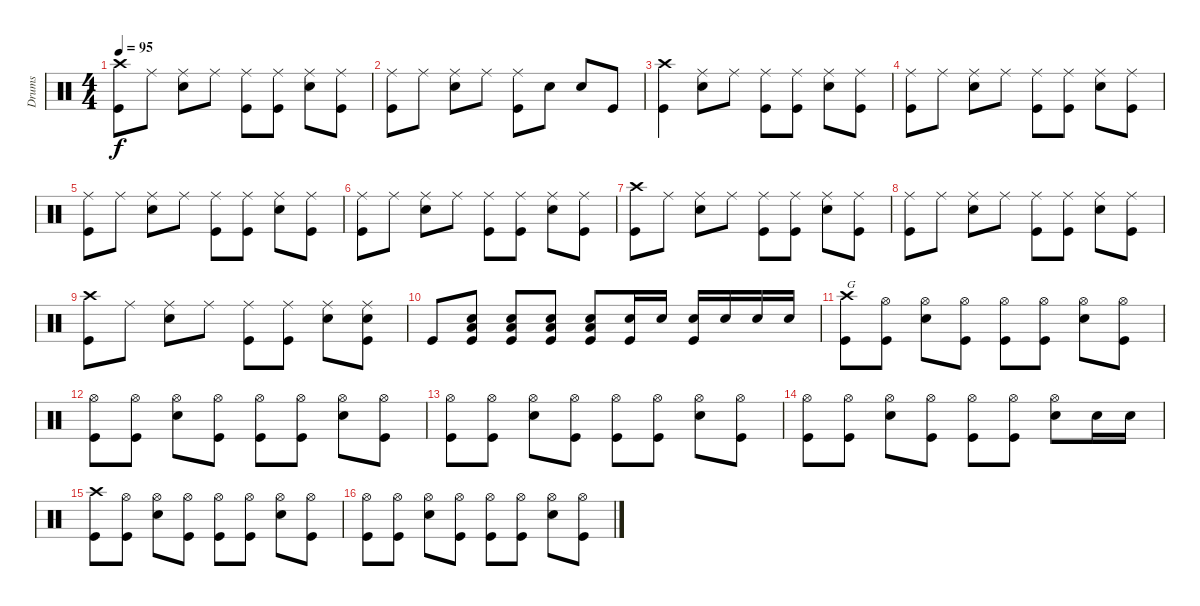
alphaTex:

\track ("Drums" "Drums") {instrument percussion}
\staff {score}
\articulation defaults
\ts (4 4)
\tempo 95
\clef neutral
\ks c
("Crash high (hit)" "Kick (hit)").8{dy f} "Ride (middle)".8 ("Ride (middle)" "Electric Snare (hit)").8 "Ride (middle)".8 ("Ride (middle)" "Kick (hit)").8 ("Ride (middle)" "Kick (hit)").8 ("Ride (middle)" "Electric Snare (hit)").8 ("Ride (middle)" "Kick (hit)").8 |
("Ride (middle)" "Kick (hit)").8 "Ride (middle)".8 ("Ride (middle)" "Electric Snare (hit)").8 "Ride (middle)".8 ("Ride (middle)" "Kick (hit)").8 "Electric Snare (hit)".8 "Electric Snare (hit)".8 "Kick (hit)".8 |
("Crash high (hit)" "Kick (hit)").4 ("Ride (middle)" "Electric Snare (hit)").8 "Ride (middle)".8 ("Ride (middle)" "Kick (hit)").8 ("Ride (middle)" "Kick (hit)").8 ("Ride (middle)" "Electric Snare (hit)").8 ("Ride (middle)" "Kick (hit)").8 |
("Ride (middle)" "Kick (hit)").8 "Ride (middle)".8 ("Ride (middle)" "Electric Snare (hit)").8 "Ride (middle)".8 ("Ride (middle)" "Kick (hit)").8 ("Ride (middle)" "Kick (hit)").8 ("Ride (middle)" "Electric Snare (hit)").8 ("Ride (middle)" "Kick (hit)").8 |
("Ride (middle)" "Kick (hit)").8 "Ride (middle)".8 ("Ride (middle)" "Electric Snare (hit)").8 "Ride (middle)".8 ("Ride (middle)" "Kick (hit)").8 ("Ride (middle)" "Kick (hit)").8 ("Ride (middle)" "Electric Snare (hit)").8 ("Ride (middle)" "Kick (hit)").8 |
("Ride (middle)" "Kick (hit)").8 "Ride (middle)".8 ("Ride (middle)" "Electric Snare (hit)").8 "Ride (middle)".8 ("Ride (middle)" "Kick (hit)").8 ("Ride (middle)" "Kick (hit)").8 ("Ride (middle)" "Electric Snare (hit)").8 ("Ride (middle)" "Kick (hit)").8 |
("Crash high (hit)" "Kick (hit)").8 "Ride (middle)".8 ("Ride (middle)" "Electric Snare (hit)").8 "Ride (middle)".8 ("Ride (middle)" "Kick (hit)").8 ("Ride (middle)" "Kick (hit)").8 ("Ride (middle)" "Electric Snare (hit)").8 ("Ride (middle)" "Kick (hit)").8 |
("Ride (middle)" "Kick (hit)").8 "Ride (middle)".8 ("Ride (middle)" "Electric Snare (hit)").8 "Ride (middle)".8 ("Ride (middle)" "Kick (hit)").8 ("Ride (middle)" "Kick (hit)").8 ("Ride (middle)" "Electric Snare (hit)").8 ("Ride (middle)" "Kick (hit)").8 |
("Crash high (hit)" "Kick (hit)").8 "Ride (middle)".8 ("Ride (middle)" "Electric Snare (hit)").8 "Ride (middle)".8 ("Ride (middle)" "Kick (hit)").8 ("Ride (middle)" "Kick (hit)").8 ("Ride (middle)" "Electric Snare (hit)").8 ("Ride (middle)" "Electric Snare (hit)" "Kick (hit)").8 |
"Kick (hit)".8 ("Low Floor Tom (hit)" "Electric Snare (hit)" "Kick (hit)").8 ("Low Floor Tom (hit)" "Electric Snare (hit)" "Kick (hit)").8 ("Low Floor Tom (hit)" "Electric Snare (hit)" "Kick (hit)").8 ("Low Floor Tom (hit)" "Electric Snare (hit)" "Kick (hit)").8 ("Electric Snare (hit)" "Kick (hit)").16 "Electric Snare (hit)".16 ("Electric Snare (hit)" "Kick (hit)").16 "Electric Snare (hit)".16 "Electric Snare (hit)".16 "Electric Snare (hit)".16 |
("Crash high (hit)" "Kick (hit)").8{txt "G"} ("Hi-Hat (open)" "Kick (hit)").8 ("Hi-Hat (open)" "Electric Snare (hit)").8 ("Hi-Hat (open)" "Kick (hit)").8 ("Hi-Hat (open)" "Kick (hit)").8 ("Hi-Hat (open)" "Kick (hit)").8 ("Hi-Hat (open)" "Electric Snare (hit)").8 ("Hi-Hat (open)" "Kick (hit)").8 |
("Hi-Hat (open)" "Kick (hit)").8 ("Hi-Hat (open)" "Kick (hit)").8 ("Hi-Hat (open)" "Electric Snare (hit)").8 ("Hi-Hat (open)" "Kick (hit)").8 ("Hi-Hat (open)" "Kick (hit)").8 ("Hi-Hat (open)" "Kick (hit)").8 ("Hi-Hat (open)" "Electric Snare (hit)").8 ("Hi-Hat (open)" "Kick (hit)").8 |
("Hi-Hat (open)" "Kick (hit)").8 ("Hi-Hat (open)" "Kick (hit)").8 ("Hi-Hat (open)" "Electric Snare (hit)").8 ("Hi-Hat (open)" "Kick (hit)").8 ("Hi-Hat (open)" "Kick (hit)").8 ("Hi-Hat (open)" "Kick (hit)").8 ("Hi-Hat (open)" "Electric Snare (hit)").8 ("Hi-Hat (open)" "Kick (hit)").8 |
("Hi-Hat (open)" "Kick (hit)").8 ("Hi-Hat (open)" "Kick (hit)").8 ("Hi-Hat (open)" "Electric Snare (hit)").8 ("Hi-Hat (open)" "Kick (hit)").8 ("Hi-Hat (open)" "Kick (hit)").8 ("Hi-Hat (open)" "Kick (hit)").8 ("Hi-Hat (open)" "Electric Snare (hit)").8 "Electric Snare (hit)".16 "Electric Snare (hit)".16 |
("Crash high (hit)" "Kick (hit)").8 ("Hi-Hat (open)" "Kick (hit)").8 ("Hi-Hat (open)" "Electric Snare (hit)").8 ("Hi-Hat (open)" "Kick (hit)").8 ("Hi-Hat (open)" "Kick (hit)").8 ("Hi-Hat (open)" "Kick (hit)").8 ("Hi-Hat (open)" "Electric Snare (hit)").8 ("Hi-Hat (open)" "Kick (hit)").8 |
("Hi-Hat (open)" "Kick (hit)").8 ("Hi-Hat (open)" "Kick (hit)").8 ("Hi-Hat (open)" "Electric Snare (hit)").8 ("Hi-Hat (open)" "Kick (hit)").8 ("Hi-Hat (open)" "Kick (hit)").8 ("Hi-Hat (open)" "Kick (hit)").8 ("Hi-Hat (open)" "Electric Snare (hit)").8 ("Hi-Hat (open)" "Kick (hit)").8
